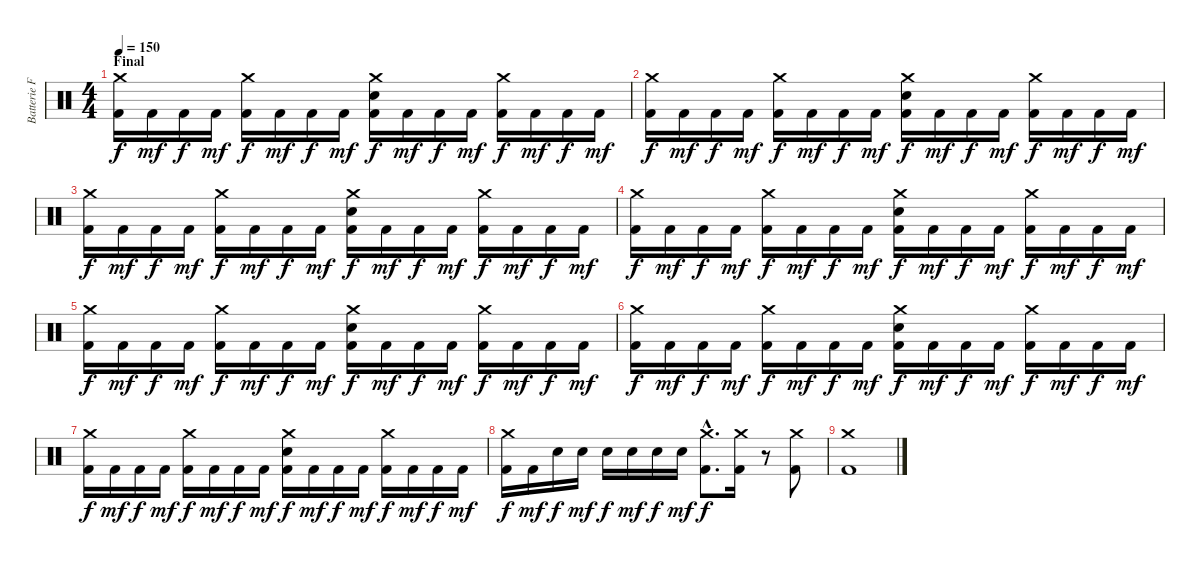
\track ("Batterie Franck" "Batterie F") {instrument percussion}
\staff {score}
\articulation defaults
\ts (4 4)
\section ("" "Final")
\tempo 150
\clef neutral
\ks c
("Crash medium (hit)" "Kick (hit) 2").16{dy f} "Kick (hit) 2".16{dy mf} "Kick (hit) 2".16{dy f} "Kick (hit) 2".16{dy mf} ("Crash medium (hit)" "Kick (hit) 2").16{dy f} "Kick (hit) 2".16{dy mf} "Kick (hit) 2".16{dy f} "Kick (hit) 2".16{dy mf} ("Crash medium (hit)" "Snare (hit) 2" "Kick (hit) 2").16{dy f} "Kick (hit) 2".16{dy mf} "Kick (hit) 2".16{dy f} "Kick (hit) 2".16{dy mf} ("Crash medium (hit)" "Kick (hit) 2").16{dy f} "Kick (hit) 2".16{dy mf} "Kick (hit) 2".16{dy f} "Kick (hit) 2".16{dy mf} |
("Crash medium (hit)" "Kick (hit) 2").16{dy f} "Kick (hit) 2".16{dy mf} "Kick (hit) 2".16{dy f} "Kick (hit) 2".16{dy mf} ("Crash medium (hit)" "Kick (hit) 2").16{dy f} "Kick (hit) 2".16{dy mf} "Kick (hit) 2".16{dy f} "Kick (hit) 2".16{dy mf} ("Crash medium (hit)" "Snare (hit) 2" "Kick (hit) 2").16{dy f} "Kick (hit) 2".16{dy mf} "Kick (hit) 2".16{dy f} "Kick (hit) 2".16{dy mf} ("Crash medium (hit)" "Kick (hit) 2").16{dy f} "Kick (hit) 2".16{dy mf} "Kick (hit) 2".16{dy f} "Kick (hit) 2".16{dy mf} |
("Crash medium (hit)" "Kick (hit) 2").16{dy f} "Kick (hit) 2".16{dy mf} "Kick (hit) 2".16{dy f} "Kick (hit) 2".16{dy mf} ("Crash medium (hit)" "Kick (hit) 2").16{dy f} "Kick (hit) 2".16{dy mf} "Kick (hit) 2".16{dy f} "Kick (hit) 2".16{dy mf} ("Crash medium (hit)" "Snare (hit) 2" "Kick (hit) 2").16{dy f} "Kick (hit) 2".16{dy mf} "Kick (hit) 2".16{dy f} "Kick (hit) 2".16{dy mf} ("Crash medium (hit)" "Kick (hit) 2").16{dy f} "Kick (hit) 2".16{dy mf} "Kick (hit) 2".16{dy f} "Kick (hit) 2".16{dy mf} |
("Crash medium (hit)" "Kick (hit) 2").16{dy f} "Kick (hit) 2".16{dy mf} "Kick (hit) 2".16{dy f} "Kick (hit) 2".16{dy mf} ("Crash medium (hit)" "Kick (hit) 2").16{dy f} "Kick (hit) 2".16{dy mf} "Kick (hit) 2".16{dy f} "Kick (hit) 2".16{dy mf} ("Crash medium (hit)" "Snare (hit) 2" "Kick (hit) 2").16{dy f} "Kick (hit) 2".16{dy mf} "Kick (hit) 2".16{dy f} "Kick (hit) 2".16{dy mf} ("Crash medium (hit)" "Kick (hit) 2").16{dy f} "Kick (hit) 2".16{dy mf} "Kick (hit) 2".16{dy f} "Kick (hit) 2".16{dy mf} |
("Crash medium (hit)" "Kick (hit) 2").16{dy f} "Kick (hit) 2".16{dy mf} "Kick (hit) 2".16{dy f} "Kick (hit) 2".16{dy mf} ("Crash medium (hit)" "Kick (hit) 2").16{dy f} "Kick (hit) 2".16{dy mf} "Kick (hit) 2".16{dy f} "Kick (hit) 2".16{dy mf} ("Crash medium (hit)" "Snare (hit) 2" "Kick (hit) 2").16{dy f} "Kick (hit) 2".16{dy mf} "Kick (hit) 2".16{dy f} "Kick (hit) 2".16{dy mf} ("Crash medium (hit)" "Kick (hit) 2").16{dy f} "Kick (hit) 2".16{dy mf} "Kick (hit) 2".16{dy f} "Kick (hit) 2".16{dy mf} |
("Crash medium (hit)" "Kick (hit) 2").16{dy f} "Kick (hit) 2".16{dy mf} "Kick (hit) 2".16{dy f} "Kick (hit) 2".16{dy mf} ("Crash medium (hit)" "Kick (hit) 2").16{dy f} "Kick (hit) 2".16{dy mf} "Kick (hit) 2".16{dy f} "Kick (hit) 2".16{dy mf} ("Crash medium (hit)" "Snare (hit) 2" "Kick (hit) 2").16{dy f} "Kick (hit) 2".16{dy mf} "Kick (hit) 2".16{dy f} "Kick (hit) 2".16{dy mf} ("Crash medium (hit)" "Kick (hit) 2").16{dy f} "Kick (hit) 2".16{dy mf} "Kick (hit) 2".16{dy f} "Kick (hit) 2".16{dy mf} |
("Crash medium (hit)" "Kick (hit) 2").16{dy f} "Kick (hit) 2".16{dy mf} "Kick (hit) 2".16{dy f} "Kick (hit) 2".16{dy mf} ("Crash medium (hit)" "Kick (hit) 2").16{dy f} "Kick (hit) 2".16{dy mf} "Kick (hit) 2".16{dy f} "Kick (hit) 2".16{dy mf} ("Crash medium (hit)" "Snare (hit) 2" "Kick (hit) 2").16{dy f} "Kick (hit) 2".16{dy mf} "Kick (hit) 2".16{dy f} "Kick (hit) 2".16{dy mf} ("Crash medium (hit)" "Kick (hit) 2").16{dy f} "Kick (hit) 2".16{dy mf} "Kick (hit) 2".16{dy f} "Kick (hit) 2".16{dy mf} |
("Crash medium (hit)" "Kick (hit) 2").16{dy f} "Kick (hit) 2".16{dy mf} "Snare (hit) 2".16{dy f} "Snare (hit) 2".16{dy mf} "Snare (hit) 2".16{dy f} "Snare (hit) 2".16{dy mf} "Snare (hit) 2".16{dy f} "Snare (hit) 2".16{dy mf} ("Crash medium (hit)" "Kick (hit) 2"{hac}).8{d dy f} ("Crash medium (hit)" "Kick (hit) 2").16 r.8 ("Crash medium (hit)" "Kick (hit) 2").8 |
("Crash medium (hit)" "Kick (hit) 2").1
